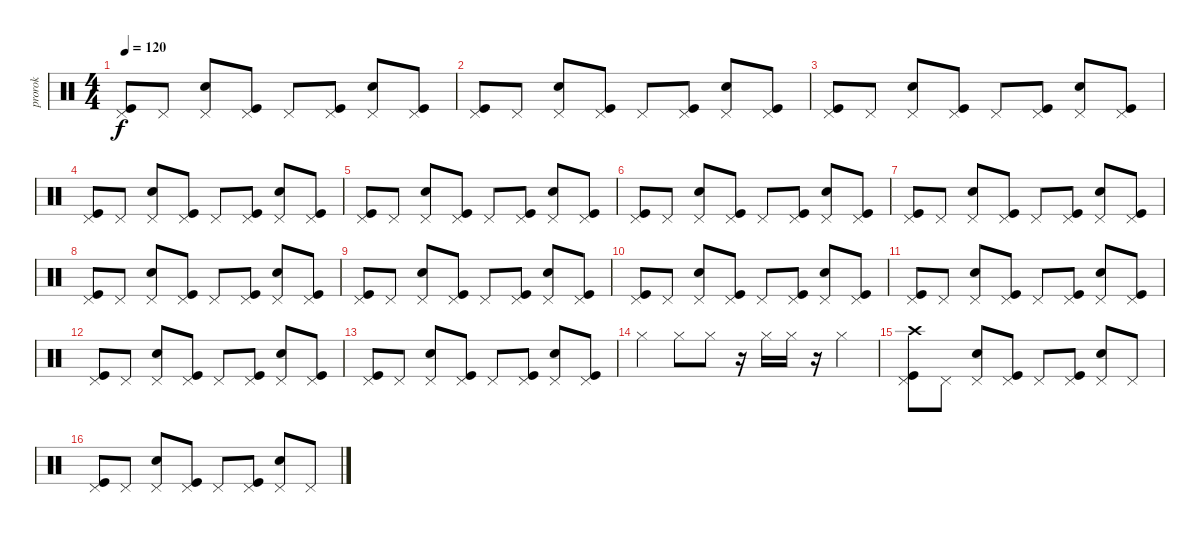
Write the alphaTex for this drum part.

\track ("prorok" "prorok") {instrument percussion}
\staff {score}
\articulation defaults
\ts (4 4)
\tempo 120
\clef neutral
\ks c
("Kick (hit)" "Pedal Hi-Hat (hit)").8{dy f} "Pedal Hi-Hat (hit)".8 ("Electric Snare (hit)" "Pedal Hi-Hat (hit)").8 ("Kick (hit)" "Pedal Hi-Hat (hit)").8 "Pedal Hi-Hat (hit)".8 ("Kick (hit)" "Pedal Hi-Hat (hit)").8 ("Electric Snare (hit)" "Pedal Hi-Hat (hit)").8 ("Kick (hit)" "Pedal Hi-Hat (hit)").8 |
("Kick (hit)" "Pedal Hi-Hat (hit)").8 "Pedal Hi-Hat (hit)".8 ("Electric Snare (hit)" "Pedal Hi-Hat (hit)").8 ("Kick (hit)" "Pedal Hi-Hat (hit)").8 "Pedal Hi-Hat (hit)".8 ("Kick (hit)" "Pedal Hi-Hat (hit)").8 ("Electric Snare (hit)" "Pedal Hi-Hat (hit)").8 ("Kick (hit)" "Pedal Hi-Hat (hit)").8 |
("Kick (hit)" "Pedal Hi-Hat (hit)").8 "Pedal Hi-Hat (hit)".8 ("Electric Snare (hit)" "Pedal Hi-Hat (hit)").8 ("Kick (hit)" "Pedal Hi-Hat (hit)").8 "Pedal Hi-Hat (hit)".8 ("Kick (hit)" "Pedal Hi-Hat (hit)").8 ("Electric Snare (hit)" "Pedal Hi-Hat (hit)").8 ("Kick (hit)" "Pedal Hi-Hat (hit)").8 |
("Kick (hit)" "Pedal Hi-Hat (hit)").8 "Pedal Hi-Hat (hit)".8 ("Electric Snare (hit)" "Pedal Hi-Hat (hit)").8 ("Kick (hit)" "Pedal Hi-Hat (hit)").8 "Pedal Hi-Hat (hit)".8 ("Kick (hit)" "Pedal Hi-Hat (hit)").8 ("Electric Snare (hit)" "Pedal Hi-Hat (hit)").8 ("Kick (hit)" "Pedal Hi-Hat (hit)").8 |
("Kick (hit)" "Pedal Hi-Hat (hit)").8 "Pedal Hi-Hat (hit)".8 ("Electric Snare (hit)" "Pedal Hi-Hat (hit)").8 ("Kick (hit)" "Pedal Hi-Hat (hit)").8 "Pedal Hi-Hat (hit)".8 ("Kick (hit)" "Pedal Hi-Hat (hit)").8 ("Electric Snare (hit)" "Pedal Hi-Hat (hit)").8 ("Kick (hit)" "Pedal Hi-Hat (hit)").8 |
("Kick (hit)" "Pedal Hi-Hat (hit)").8 "Pedal Hi-Hat (hit)".8 ("Electric Snare (hit)" "Pedal Hi-Hat (hit)").8 ("Kick (hit)" "Pedal Hi-Hat (hit)").8 "Pedal Hi-Hat (hit)".8 ("Kick (hit)" "Pedal Hi-Hat (hit)").8 ("Electric Snare (hit)" "Pedal Hi-Hat (hit)").8 ("Kick (hit)" "Pedal Hi-Hat (hit)").8 |
("Kick (hit)" "Pedal Hi-Hat (hit)").8 "Pedal Hi-Hat (hit)".8 ("Electric Snare (hit)" "Pedal Hi-Hat (hit)").8 ("Kick (hit)" "Pedal Hi-Hat (hit)").8 "Pedal Hi-Hat (hit)".8 ("Kick (hit)" "Pedal Hi-Hat (hit)").8 ("Electric Snare (hit)" "Pedal Hi-Hat (hit)").8 ("Kick (hit)" "Pedal Hi-Hat (hit)").8 |
("Kick (hit)" "Pedal Hi-Hat (hit)").8 "Pedal Hi-Hat (hit)".8 ("Electric Snare (hit)" "Pedal Hi-Hat (hit)").8 ("Kick (hit)" "Pedal Hi-Hat (hit)").8 "Pedal Hi-Hat (hit)".8 ("Kick (hit)" "Pedal Hi-Hat (hit)").8 ("Electric Snare (hit)" "Pedal Hi-Hat (hit)").8 ("Kick (hit)" "Pedal Hi-Hat (hit)").8 |
("Kick (hit)" "Pedal Hi-Hat (hit)").8 "Pedal Hi-Hat (hit)".8 ("Electric Snare (hit)" "Pedal Hi-Hat (hit)").8 ("Kick (hit)" "Pedal Hi-Hat (hit)").8 "Pedal Hi-Hat (hit)".8 ("Kick (hit)" "Pedal Hi-Hat (hit)").8 ("Electric Snare (hit)" "Pedal Hi-Hat (hit)").8 ("Kick (hit)" "Pedal Hi-Hat (hit)").8 |
("Kick (hit)" "Pedal Hi-Hat (hit)").8 "Pedal Hi-Hat (hit)".8 ("Electric Snare (hit)" "Pedal Hi-Hat (hit)").8 ("Kick (hit)" "Pedal Hi-Hat (hit)").8 "Pedal Hi-Hat (hit)".8 ("Kick (hit)" "Pedal Hi-Hat (hit)").8 ("Electric Snare (hit)" "Pedal Hi-Hat (hit)").8 ("Kick (hit)" "Pedal Hi-Hat (hit)").8 |
("Kick (hit)" "Pedal Hi-Hat (hit)").8 "Pedal Hi-Hat (hit)".8 ("Electric Snare (hit)" "Pedal Hi-Hat (hit)").8 ("Kick (hit)" "Pedal Hi-Hat (hit)").8 "Pedal Hi-Hat (hit)".8 ("Kick (hit)" "Pedal Hi-Hat (hit)").8 ("Electric Snare (hit)" "Pedal Hi-Hat (hit)").8 ("Kick (hit)" "Pedal Hi-Hat (hit)").8 |
("Kick (hit)" "Pedal Hi-Hat (hit)").8 "Pedal Hi-Hat (hit)".8 ("Electric Snare (hit)" "Pedal Hi-Hat (hit)").8 ("Kick (hit)" "Pedal Hi-Hat (hit)").8 "Pedal Hi-Hat (hit)".8 ("Kick (hit)" "Pedal Hi-Hat (hit)").8 ("Electric Snare (hit)" "Pedal Hi-Hat (hit)").8 ("Kick (hit)" "Pedal Hi-Hat (hit)").8 |
("Kick (hit)" "Pedal Hi-Hat (hit)").8 "Pedal Hi-Hat (hit)".8 ("Electric Snare (hit)" "Pedal Hi-Hat (hit)").8 ("Kick (hit)" "Pedal Hi-Hat (hit)").8 "Pedal Hi-Hat (hit)".8 ("Kick (hit)" "Pedal Hi-Hat (hit)").8 ("Electric Snare (hit)" "Pedal Hi-Hat (hit)").8 ("Kick (hit)" "Pedal Hi-Hat (hit)").8 |
"Hi-Hat (closed)".4 "Hi-Hat (closed)".8 "Hi-Hat (closed)".8 r.16 "Hi-Hat (closed)".16 "Hi-Hat (closed)".16 r.16 "Hi-Hat (closed)".4 |
("Kick (hit)" "Pedal Hi-Hat (hit)" "Crash high (hit)").8 "Pedal Hi-Hat (hit)".8 ("Electric Snare (hit)" "Pedal Hi-Hat (hit)").8 ("Kick (hit)" "Pedal Hi-Hat (hit)").8 "Pedal Hi-Hat (hit)".8 ("Kick (hit)" "Pedal Hi-Hat (hit)").8 ("Electric Snare (hit)" "Pedal Hi-Hat (hit)").8 "Pedal Hi-Hat (hit)".8 |
("Kick (hit)" "Pedal Hi-Hat (hit)").8 "Pedal Hi-Hat (hit)".8 ("Electric Snare (hit)" "Pedal Hi-Hat (hit)").8 ("Kick (hit)" "Pedal Hi-Hat (hit)").8 "Pedal Hi-Hat (hit)".8 ("Kick (hit)" "Pedal Hi-Hat (hit)").8 ("Electric Snare (hit)" "Pedal Hi-Hat (hit)").8 "Pedal Hi-Hat (hit)".8
